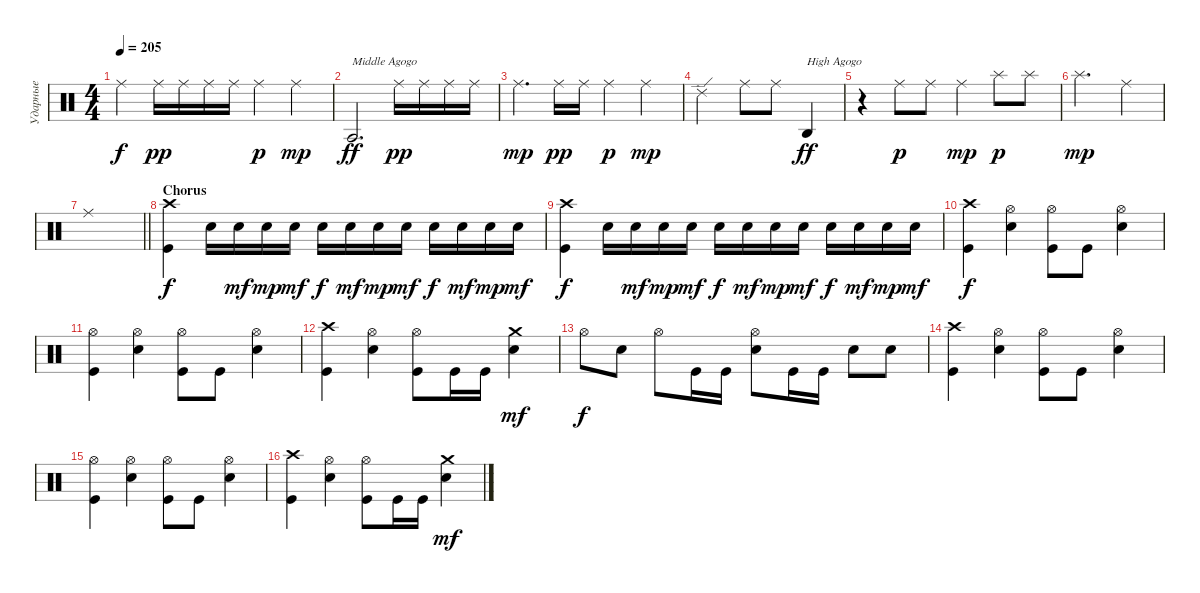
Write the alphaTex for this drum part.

\track ("Ударные" "Ударные") {instrument percussion}
\staff {score}
\articulation defaults
\ts (4 4)
\tempo 205
\clef neutral
\ks aminor "Ride (middle)"{t}.4{dy f} "Ride (middle)".16{dy pp} "Ride (middle)".16 "Ride (middle)".16 "Ride (middle)".16 "Ride (middle)".4{dy p} "Ride (middle)".4{dy mp}
|
"Agogo tow (hit)".2{d txt "Middle Agogo" dy ff} "Ride (middle)".16{dy pp} "Ride (middle)".16 "Ride (middle)".16 "Ride (middle)".16 |
"Ride (middle)".4{d dy mp} "Ride (middle)".16{dy pp} "Ride (middle)".16 "Ride (middle)".4{dy p} "Ride (middle)".4{dy mp} |
"Ride (edge) 2".2 "Ride (middle)".8 "Ride (middle)".8 "Agogo high (hit)".4{txt "High Agogo" dy ff} |
r.4 "Ride (middle)".8{dy p} "Ride (middle)".8 "Ride (middle)".4{dy mp} "Splash (hit)".8{dy p} "Splash (hit)".8 |
"Splash (hit)".2{d dy mp} "Ride (middle)".4 |
\barLineRight lightlight "Ride (middle)".1
|
\section ("" "Chorus")
("Kick (hit)" "Crash high (hit)").4{dy f} "Snare (hit) 2".16 "Snare (hit) 2".16{dy mf} "Snare (hit) 2".16{dy mp} "Snare (hit) 2".16{dy mf} "Snare (hit) 2".16{dy f} "Snare (hit) 2".16{dy mf} "Snare (hit) 2".16{dy mp} "Snare (hit) 2".16{dy mf} "Snare (hit) 2".16{dy f} "Snare (hit) 2".16{dy mf} "Snare (hit) 2".16{dy mp} "Snare (hit) 2".16{dy mf} |
("Kick (hit)" "Crash high (hit)").4{dy f} "Snare (hit) 2".16 "Snare (hit) 2".16{dy mf} "Snare (hit) 2".16{dy mp} "Snare (hit) 2".16{dy mf} "Snare (hit) 2".16{dy f} "Snare (hit) 2".16{dy mf} "Snare (hit) 2".16{dy mp} "Snare (hit) 2".16{dy mf} "Snare (hit) 2".16{dy f} "Snare (hit) 2".16{dy mf} "Snare (hit) 2".16{dy mp} "Snare (hit) 2".16{dy mf} |
("Kick (hit)" "Crash high (hit)").4{dy f} ("Snare (hit) 2" "Hi-Hat (open)").4 ("Kick (hit)" "Hi-Hat (open)").8 "Kick (hit)".8 ("Snare (hit) 2" "Hi-Hat (open)").4 |
("Kick (hit)" "Hi-Hat (open)").4 ("Snare (hit) 2" "Hi-Hat (open)").4 ("Kick (hit)" "Hi-Hat (open)").8 "Kick (hit)".8 ("Snare (hit) 2" "Hi-Hat (open)").4 |
("Kick (hit)" "Crash high (hit)").4 ("Snare (hit) 2" "Hi-Hat (open)").4 ("Kick (hit)" "Hi-Hat (open)").8 "Kick (hit)".16 "Kick (hit)".16 ("Snare (hit) 2" "Crash medium (hit)").4{dy mf} |
"Hi-Hat (open)".8{dy f} "Snare (hit) 2".8 "Hi-Hat (open)".8 "Kick (hit)".16 "Kick (hit)".16 ("Snare (hit) 2" "Hi-Hat (open)").8 "Kick (hit)".16 "Kick (hit)".16 "Snare (hit) 2".8 "Snare (hit) 2".8 |
("Kick (hit)" "Crash high (hit)").4 ("Snare (hit) 2" "Hi-Hat (open)").4 ("Kick (hit)" "Hi-Hat (open)").8 "Kick (hit)".8 ("Snare (hit) 2" "Hi-Hat (open)").4 |
("Kick (hit)" "Hi-Hat (open)").4 ("Snare (hit) 2" "Hi-Hat (open)").4 ("Kick (hit)" "Hi-Hat (open)").8 "Kick (hit)".8 ("Snare (hit) 2" "Hi-Hat (open)").4 |
("Kick (hit)" "Crash high (hit)").4 ("Snare (hit) 2" "Hi-Hat (open)").4 ("Kick (hit)" "Hi-Hat (open)").8 "Kick (hit)".16 "Kick (hit)".16 ("Snare (hit) 2" "Crash medium (hit)").4{dy mf}
